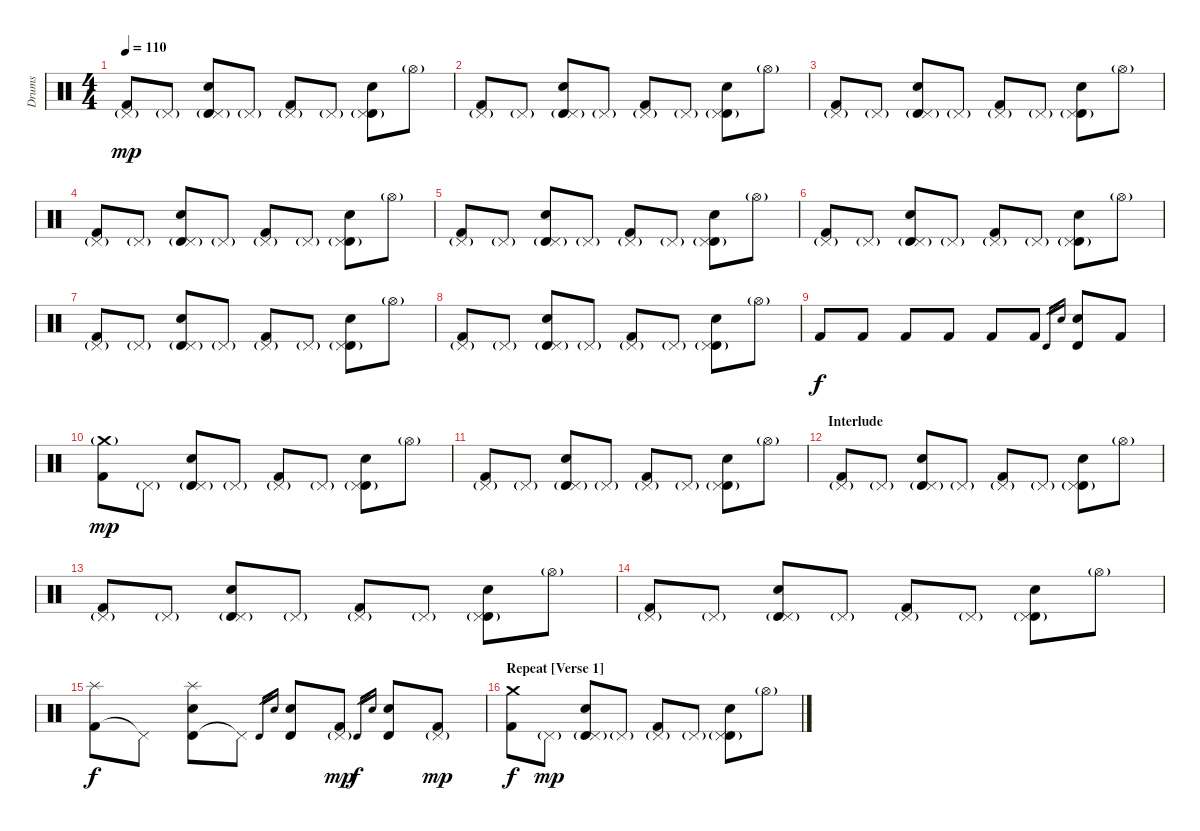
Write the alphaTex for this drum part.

\track ("Drums" "Drums") {instrument percussion}
\staff {score}
\articulation defaults
\ts (4 4)
\tempo 110
\clef neutral
\ks c
("Kick (hit) 2" "Pedal Hi-Hat (hit)"{g}).8{dy mp} "Pedal Hi-Hat (hit)"{g}.8 ("Timbale high (hit)" "Electric Snare (hit)" "Pedal Hi-Hat (hit)"{g}).8 "Pedal Hi-Hat (hit)"{g}.8 ("Kick (hit) 2" "Pedal Hi-Hat (hit)"{g}).8 "Pedal Hi-Hat (hit)"{g}.8 ("Timbale high (hit)" "Electric Snare (hit)" "Pedal Hi-Hat (hit)"{g}).8 "Hi-Hat (open)"{g}.8 |
("Kick (hit) 2" "Pedal Hi-Hat (hit)"{g}).8 "Pedal Hi-Hat (hit)"{g}.8 ("Timbale high (hit)" "Electric Snare (hit)" "Pedal Hi-Hat (hit)"{g}).8 "Pedal Hi-Hat (hit)"{g}.8 ("Kick (hit) 2" "Pedal Hi-Hat (hit)"{g}).8 "Pedal Hi-Hat (hit)"{g}.8 ("Timbale high (hit)" "Electric Snare (hit)" "Pedal Hi-Hat (hit)"{g}).8 "Hi-Hat (open)"{g}.8 |
("Kick (hit) 2" "Pedal Hi-Hat (hit)"{g}).8 "Pedal Hi-Hat (hit)"{g}.8 ("Timbale high (hit)" "Electric Snare (hit)" "Pedal Hi-Hat (hit)"{g}).8 "Pedal Hi-Hat (hit)"{g}.8 ("Kick (hit) 2" "Pedal Hi-Hat (hit)"{g}).8 "Pedal Hi-Hat (hit)"{g}.8 ("Timbale high (hit)" "Electric Snare (hit)" "Pedal Hi-Hat (hit)"{g}).8 "Hi-Hat (open)"{g}.8 |
("Kick (hit) 2" "Pedal Hi-Hat (hit)"{g}).8 "Pedal Hi-Hat (hit)"{g}.8 ("Timbale high (hit)" "Electric Snare (hit)" "Pedal Hi-Hat (hit)"{g}).8 "Pedal Hi-Hat (hit)"{g}.8 ("Kick (hit) 2" "Pedal Hi-Hat (hit)"{g}).8 "Pedal Hi-Hat (hit)"{g}.8 ("Timbale high (hit)" "Electric Snare (hit)" "Pedal Hi-Hat (hit)"{g}).8 "Hi-Hat (open)"{g}.8 |
("Kick (hit) 2" "Pedal Hi-Hat (hit)"{g}).8 "Pedal Hi-Hat (hit)"{g}.8 ("Timbale high (hit)" "Electric Snare (hit)" "Pedal Hi-Hat (hit)"{g}).8 "Pedal Hi-Hat (hit)"{g}.8 ("Kick (hit) 2" "Pedal Hi-Hat (hit)"{g}).8 "Pedal Hi-Hat (hit)"{g}.8 ("Timbale high (hit)" "Electric Snare (hit)" "Pedal Hi-Hat (hit)"{g}).8 "Hi-Hat (open)"{g}.8 |
("Kick (hit) 2" "Pedal Hi-Hat (hit)"{g}).8 "Pedal Hi-Hat (hit)"{g}.8 ("Timbale high (hit)" "Electric Snare (hit)" "Pedal Hi-Hat (hit)"{g}).8 "Pedal Hi-Hat (hit)"{g}.8 ("Kick (hit) 2" "Pedal Hi-Hat (hit)"{g}).8 "Pedal Hi-Hat (hit)"{g}.8 ("Timbale high (hit)" "Electric Snare (hit)" "Pedal Hi-Hat (hit)"{g}).8 "Hi-Hat (open)"{g}.8 |
("Kick (hit) 2" "Pedal Hi-Hat (hit)"{g}).8 "Pedal Hi-Hat (hit)"{g}.8 ("Timbale high (hit)" "Electric Snare (hit)" "Pedal Hi-Hat (hit)"{g}).8 "Pedal Hi-Hat (hit)"{g}.8 ("Kick (hit) 2" "Pedal Hi-Hat (hit)"{g}).8 "Pedal Hi-Hat (hit)"{g}.8 ("Timbale high (hit)" "Electric Snare (hit)" "Pedal Hi-Hat (hit)"{g}).8 "Hi-Hat (open)"{g}.8 |
("Kick (hit) 2" "Pedal Hi-Hat (hit)"{g}).8 "Pedal Hi-Hat (hit)"{g}.8 ("Timbale high (hit)" "Electric Snare (hit)" "Pedal Hi-Hat (hit)"{g}).8 "Pedal Hi-Hat (hit)"{g}.8 ("Kick (hit) 2" "Pedal Hi-Hat (hit)"{g}).8 "Pedal Hi-Hat (hit)"{g}.8 ("Timbale high (hit)" "Electric Snare (hit)" "Pedal Hi-Hat (hit)"{g}).8 "Hi-Hat (open)"{g}.8 |
"Kick (hit) 2".8{dy f} "Kick (hit) 2".8 "Kick (hit) 2".8 "Kick (hit) 2".8 "Kick (hit) 2".8 "Kick (hit) 2".8 "Timbale high (hit)".16{gr} "Electric Snare (hit)".16{gr} ("Timbale high (hit)" "Electric Snare (hit)").8 "Kick (hit) 2".8 |
("Kick (hit) 2" "Crash medium (hit)"{g}).8{dy mp} "Pedal Hi-Hat (hit)"{g}.8 ("Timbale high (hit)" "Electric Snare (hit)" "Pedal Hi-Hat (hit)"{g}).8 "Pedal Hi-Hat (hit)"{g}.8 ("Kick (hit) 2" "Pedal Hi-Hat (hit)"{g}).8 "Pedal Hi-Hat (hit)"{g}.8 ("Timbale high (hit)" "Electric Snare (hit)" "Pedal Hi-Hat (hit)"{g}).8 "Hi-Hat (open)"{g}.8 |
("Kick (hit) 2" "Pedal Hi-Hat (hit)"{g}).8 "Pedal Hi-Hat (hit)"{g}.8 ("Timbale high (hit)" "Electric Snare (hit)" "Pedal Hi-Hat (hit)"{g}).8 "Pedal Hi-Hat (hit)"{g}.8 ("Kick (hit) 2" "Pedal Hi-Hat (hit)"{g}).8 "Pedal Hi-Hat (hit)"{g}.8 ("Timbale high (hit)" "Electric Snare (hit)" "Pedal Hi-Hat (hit)"{g}).8 "Hi-Hat (open)"{g}.8 |
\section ("" "Interlude")
("Kick (hit) 2" "Pedal Hi-Hat (hit)"{g}).8 "Pedal Hi-Hat (hit)"{g}.8 ("Timbale high (hit)" "Electric Snare (hit)" "Pedal Hi-Hat (hit)"{g}).8 "Pedal Hi-Hat (hit)"{g}.8 ("Kick (hit) 2" "Pedal Hi-Hat (hit)"{g}).8 "Pedal Hi-Hat (hit)"{g}.8 ("Timbale high (hit)" "Electric Snare (hit)" "Pedal Hi-Hat (hit)"{g}).8 "Hi-Hat (open)"{g}.8 |
("Kick (hit) 2" "Pedal Hi-Hat (hit)"{g}).8 "Pedal Hi-Hat (hit)"{g}.8 ("Timbale high (hit)" "Electric Snare (hit)" "Pedal Hi-Hat (hit)"{g}).8 "Pedal Hi-Hat (hit)"{g}.8 ("Kick (hit) 2" "Pedal Hi-Hat (hit)"{g}).8 "Pedal Hi-Hat (hit)"{g}.8 ("Timbale high (hit)" "Electric Snare (hit)" "Pedal Hi-Hat (hit)"{g}).8 "Hi-Hat (open)"{g}.8 |
("Kick (hit) 2" "Pedal Hi-Hat (hit)"{g}).8 "Pedal Hi-Hat (hit)"{g}.8 ("Timbale high (hit)" "Electric Snare (hit)" "Pedal Hi-Hat (hit)"{g}).8 "Pedal Hi-Hat (hit)"{g}.8 ("Kick (hit) 2" "Pedal Hi-Hat (hit)"{g}).8 "Pedal Hi-Hat (hit)"{g}.8 ("Timbale high (hit)" "Electric Snare (hit)" "Pedal Hi-Hat (hit)"{g}).8 "Hi-Hat (open)"{g}.8 |
("Kick (hit) 2" "Splash (hit)").8{dy f} "Pedal Hi-Hat (hit)"{t}.8 ("Timbale high (hit)" "Electric Snare (hit)" "Splash (hit)").8 "Pedal Hi-Hat (hit)"{t}.8 "Timbale high (hit)".16{gr} "Electric Snare (hit)".16{gr} ("Timbale high (hit)" "Electric Snare (hit)").8 ("Kick (hit) 2" "Pedal Hi-Hat (hit)"{g}).8{dy mp} "Timbale high (hit)".16{gr dy f} "Electric Snare (hit)".16{gr} ("Timbale high (hit)" "Electric Snare (hit)").8 ("Kick (hit) 2" "Pedal Hi-Hat (hit)"{g}).8{dy mp} |
\section ("" "Repeat [Verse 1]")
("Kick (hit) 2" "Crash medium (hit)").8{dy f} "Pedal Hi-Hat (hit)"{g}.8{dy mp} ("Timbale high (hit)" "Electric Snare (hit)" "Pedal Hi-Hat (hit)"{g}).8 "Pedal Hi-Hat (hit)"{g}.8 ("Kick (hit) 2" "Pedal Hi-Hat (hit)"{g}).8 "Pedal Hi-Hat (hit)"{g}.8 ("Timbale high (hit)" "Electric Snare (hit)" "Pedal Hi-Hat (hit)"{g}).8 "Hi-Hat (open)"{g}.8
